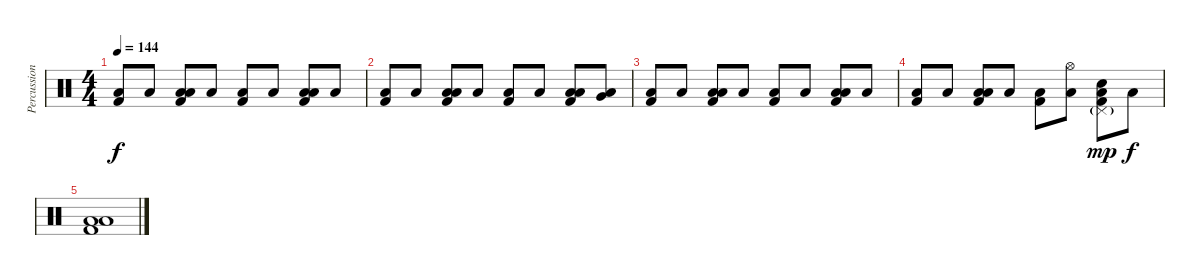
\track ("Percussion" "Percussion") {instrument percussion}
\staff {score}
\articulation defaults
\ts (4 4)
\tempo 144
\clef neutral
\ks c
("Low Floor Tom (hit)" "Kick (hit) 2").8{dy f} "Low Floor Tom (hit)".8 ("Low Tom (hit)" "Low Floor Tom (hit)" "Kick (hit) 2").8 "Low Floor Tom (hit)".8 ("Low Floor Tom (hit)" "Kick (hit) 2").8 "Low Floor Tom (hit)".8 ("Low Tom (hit)" "Low Floor Tom (hit)" "Kick (hit) 2").8 "Low Floor Tom (hit)".8 |
("Low Floor Tom (hit)" "Kick (hit) 2").8 "Low Floor Tom (hit)".8 ("Low Tom (hit)" "Low Floor Tom (hit)" "Kick (hit) 2").8 "Low Floor Tom (hit)".8 ("Low Floor Tom (hit)" "Kick (hit) 2").8 "Low Floor Tom (hit)".8 ("Low Tom (hit)" "Low Floor Tom (hit)" "Kick (hit) 2").8 ("Very Low Tom (hit)" "Low Floor Tom (hit)").8 |
("Low Floor Tom (hit)" "Kick (hit) 2").8 "Low Floor Tom (hit)".8 ("Low Tom (hit)" "Low Floor Tom (hit)" "Kick (hit) 2").8 "Low Floor Tom (hit)".8 ("Low Floor Tom (hit)" "Kick (hit) 2").8 "Low Floor Tom (hit)".8 ("Low Tom (hit)" "Low Floor Tom (hit)" "Kick (hit) 2").8 "Low Floor Tom (hit)".8 |
("Low Floor Tom (hit)" "Kick (hit) 2").8 "Low Floor Tom (hit)".8 ("Low Tom (hit)" "Low Floor Tom (hit)" "Kick (hit) 2").8 "Low Floor Tom (hit)".8 ("Low Floor Tom (hit)" "Kick (hit) 2").8 ("Hi-Hat (open)" "Low Floor Tom (hit)").8 ("Pedal Hi-Hat (hit)"{g} "Electric Snare (hit)" "Low Floor Tom (hit)" "Kick (hit) 2").8{dy mp} "Low Floor Tom (hit)".8{dy f} |
("Low Tom (hit)" "Low Floor Tom (hit)" "Kick (hit) 2").1
